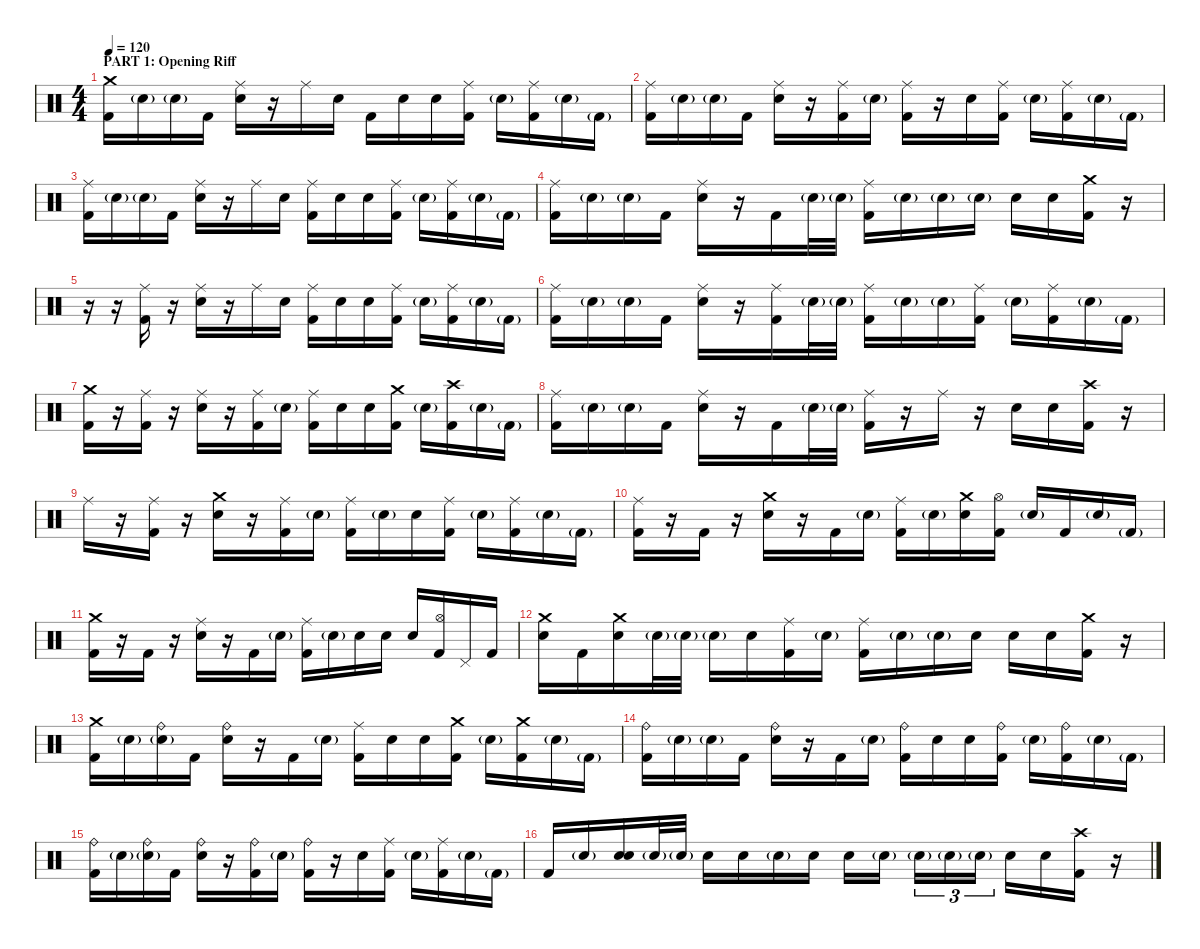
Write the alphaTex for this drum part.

\defaultSystemsLayout 4
\hideDynamics
\bracketExtendMode nobrackets
\singleTrackTrackNamePolicy hidden
\multiTrackTrackNamePolicy hidden
\firstSystemTrackNameMode fullname
\firstSystemTrackNameOrientation horizontal
\otherSystemsTrackNameOrientation horizontal
\track ("Martin Axenrot - Drums" "drm.") {instrument percussion}
\staff {score}
\articulation defaults
\ts (4 4)
\beaming (8 2 2 2 2)
\section ("" "PART 1: Opening Riff")
\tempo 120
\clef neutral
\ks c
("Crash medium (hit)" "Kick (hit) 2").16{dy f beam Down} "Snare (hit) 2"{g}.16{dy mf beam Down} "Snare (hit) 2"{g}.16{beam Down} "Kick (hit) 2".16{dy f beam Down} ("Ride (middle)" "Snare (hit) 2").16{beam Down} r.16{beam Down} "Ride (middle)".16{beam Down} "Snare (hit) 2".16{beam Down} "Kick (hit) 2".16{beam Down} "Snare (hit) 2".16{dy mp beam Down} "Snare (hit) 2".16{dy f beam Down} ("Ride (middle)" "Kick (hit) 2").16{beam Down} "Snare (hit) 2"{g}.16{dy mf beam Down} ("Ride (middle)" "Kick (hit) 2").16{dy f beam Down} "Snare (hit) 2"{g}.16{dy mf beam Down} "Kick (hit) 2"{g}.16{beam Down} |
("Ride (middle)" "Kick (hit) 2").16{dy f beam Down} "Snare (hit) 2"{g}.16{dy mf beam Down} "Snare (hit) 2"{g}.16{beam Down} "Kick (hit) 2".16{dy f beam Down} ("Ride (middle)" "Snare (hit) 2").16{beam Down} r.16{beam Down} ("Ride (middle)" "Kick (hit) 2").16{beam Down} "Snare (hit) 2"{g}.16{dy mf beam Down} ("Ride (middle)" "Kick (hit) 2").16{dy f beam Down} r.16{beam Down} "Snare (hit) 2".16{beam Down} ("Ride (middle)" "Kick (hit) 2").16{beam Down} "Snare (hit) 2"{g}.16{dy mf beam Down} ("Ride (middle)" "Kick (hit) 2").16{dy f beam Down} "Snare (hit) 2"{g}.16{dy mf beam Down} "Kick (hit) 2"{g}.16{beam Down} |
("Ride (middle)" "Kick (hit) 2").16{dy f beam Down} "Snare (hit) 2"{g}.16{dy mf beam Down} "Snare (hit) 2"{g}.16{beam Down} "Kick (hit) 2".16{dy f beam Down} ("Ride (middle)" "Snare (hit) 2").16{beam Down} r.16{beam Down} "Ride (middle)".16{beam Down} "Snare (hit) 2".16{beam Down} ("Ride (middle)" "Kick (hit) 2").16{beam Down} "Snare (hit) 2".16{dy mp beam Down} "Snare (hit) 2".16{dy f beam Down} ("Ride (middle)" "Kick (hit) 2").16{beam Down} "Snare (hit) 2"{g}.16{dy mf beam Down} ("Ride (middle)" "Kick (hit) 2").16{dy f beam Down} "Snare (hit) 2"{g}.16{dy mf beam Down} "Kick (hit) 2"{g}.16{beam Down} |
("Ride (middle)" "Kick (hit) 2").16{dy f beam Down} "Snare (hit) 2"{g}.16{dy mf beam Down} "Snare (hit) 2"{g}.16{beam Down} "Kick (hit) 2".16{dy f beam Down} ("Ride (middle)" "Snare (hit) 2").16{beam Down} r.16{beam Down} "Kick (hit) 2".16{beam Down} "Snare (hit) 2"{g}.32{dy mf beam Down} "Snare (hit) 2"{g}.32{beam Down} ("Ride (middle)" "Kick (hit) 2").16{dy f beam Down} "Snare (hit) 2"{g}.16{dy mf beam Down} "Snare (hit) 2"{g}.16{beam Down} "Snare (hit) 2"{g}.16{beam Down} "Snare (hit) 2".16{dy f beam Down} "Snare (hit) 2".16{beam Down} ("Crash medium (hit)" "Kick (hit) 2").16{beam Down} r.16{beam Down} |
r.16{beam Down} r.16{beam Down} ("Ride (middle)" "Kick (hit) 2").16{beam Down} r.16{beam Down} ("Ride (middle)" "Snare (hit) 2").16{beam Down} r.16{beam Down} "Ride (middle)".16{beam Down} "Snare (hit) 2".16{beam Down} ("Ride (middle)" "Kick (hit) 2").16{beam Down} "Snare (hit) 2".16{dy mp beam Down} "Snare (hit) 2".16{dy f beam Down} ("Ride (middle)" "Kick (hit) 2").16{beam Down} "Snare (hit) 2"{g}.16{dy mf beam Down} ("Ride (middle)" "Kick (hit) 2").16{dy f beam Down} "Snare (hit) 2"{g}.16{dy mf beam Down} "Kick (hit) 2"{g}.16{beam Down} |
("Ride (middle)" "Kick (hit) 2").16{dy f beam Down} "Snare (hit) 2"{g}.16{dy mf beam Down} "Snare (hit) 2"{g}.16{beam Down} "Kick (hit) 2".16{dy f beam Down} ("Ride (middle)" "Snare (hit) 2").16{beam Down} r.16{beam Down} ("Ride (middle)" "Kick (hit) 2").16{beam Down} "Snare (hit) 2"{g}.32{dy mf beam Down} "Snare (hit) 2"{g}.32{beam Down} ("Ride (middle)" "Kick (hit) 2").16{dy f beam Down} "Snare (hit) 2"{g}.16{dy mf beam Down} "Snare (hit) 2"{g}.16{beam Down} ("Ride (middle)" "Kick (hit) 2").16{dy f beam Down} "Snare (hit) 2"{g}.16{dy mf beam Down} ("Ride (middle)" "Kick (hit) 2").16{dy f beam Down} "Snare (hit) 2"{g}.16{dy mf beam Down} "Kick (hit) 2"{g}.16{beam Down} |
("Crash medium (hit)" "Kick (hit) 2").16{dy f beam Down} r.16{beam Down} ("Ride (middle)" "Kick (hit) 2").16{beam Down} r.16{beam Down} ("Ride (middle)" "Snare (hit) 2").16{beam Down} r.16{beam Down} ("Ride (middle)" "Kick (hit) 2").16{beam Down} "Snare (hit) 2"{g}.16{dy mf beam Down} ("Ride (middle)" "Kick (hit) 2").16{dy f beam Down} "Snare (hit) 2".16{dy mp beam Down} "Snare (hit) 2".16{dy f beam Down} ("Crash medium (hit)" "Kick (hit) 2").16{beam Down} "Snare (hit) 2"{g}.16{dy mf beam Down} ("Crash high (hit)" "Kick (hit) 2").16{dy f beam Down} "Snare (hit) 2"{g}.16{dy mf beam Down} "Kick (hit) 2"{g}.16{beam Down} |
("Ride (middle)" "Kick (hit) 2").16{dy f beam Down} "Snare (hit) 2"{g}.16{dy mf beam Down} "Snare (hit) 2"{g}.16{beam Down} "Kick (hit) 2".16{dy f beam Down} ("Ride (middle)" "Snare (hit) 2").16{beam Down} r.16{beam Down} "Kick (hit) 2".16{beam Down} "Snare (hit) 2"{g}.32{dy mf beam Down} "Snare (hit) 2"{g}.32{beam Down} ("Ride (middle)" "Kick (hit) 2").16{dy f beam Down} r.16{beam Down} "Ride (middle)".16{beam Down} r.16{beam Down} "Snare (hit) 2".16{beam Down} "Snare (hit) 2".16{beam Down} ("Crash high (hit)" "Kick (hit) 2").16{beam Down} r.16{beam Down} |
"Ride (middle)".16{beam Down} r.16{beam Down} ("Ride (middle)" "Kick (hit) 2").16{beam Down} r.16{beam Down} ("Crash medium (hit)" "Snare (hit) 2").16{beam Down} r.16{beam Down} ("Ride (middle)" "Kick (hit) 2").16{beam Down} "Snare (hit) 2"{g}.16{dy mf beam Down} ("Ride (middle)" "Kick (hit) 2").16{dy f beam Down} "Snare (hit) 2"{g}.16{dy mf beam Down} "Snare (hit) 2".16{dy f beam Down} ("Ride (middle)" "Kick (hit) 2").16{beam Down} "Snare (hit) 2"{g}.16{dy mf beam Down} ("Ride (middle)" "Kick (hit) 2").16{dy f beam Down} "Snare (hit) 2"{g}.16{dy mf beam Down} "Kick (hit) 2"{g}.16{beam Down} |
("Ride (middle)" "Kick (hit) 2").16{dy f beam Down} r.16{beam Down} "Kick (hit) 2".16{beam Down} r.16{beam Down} ("Crash medium (hit)" "Snare (hit) 2").16{beam Down} r.16{beam Down} "Kick (hit) 2".16{beam Down} "Snare (hit) 2"{g}.16{dy mf beam Down} ("Ride (middle)" "Kick (hit) 2").16{dy f beam Down} "Snare (hit) 2"{g}.16{dy mf beam Down} ("Crash medium (hit)" "Snare (hit) 2").16{dy f beam Down} ("Hi-Hat (open)" "Kick (hit) 2").16{beam Down} "Snare (hit) 2"{g}.16{dy mf beam Up} "Kick (hit) 2".16{dy f beam Up} "Snare (hit) 2"{g}.16{dy mf beam Up} "Kick (hit) 2"{g}.16{beam Up} |
("Crash medium (hit)" "Kick (hit) 2").16{dy f beam Down} r.16{beam Down} "Kick (hit) 2".16{beam Down} r.16{beam Down} ("Ride (middle)" "Snare (hit) 2").16{beam Down} r.16{beam Down} "Kick (hit) 2".16{beam Down} "Snare (hit) 2"{g}.16{dy mf beam Down} ("Ride (middle)" "Kick (hit) 2").16{dy f beam Down} "Snare (hit) 2"{g}.16{dy mf beam Down} "Snare (hit) 2".16{dy f beam Down} "Snare (hit) 2".16{beam Down} "Snare (hit) 2".16{beam Up} ("Hi-Hat (open)" "Kick (hit) 2").16{beam Up} "Pedal Hi-Hat (hit)".16{beam Up} "Kick (hit) 2".16{beam Up} |
("Crash medium (hit)" "Snare (hit) 2").16{beam Down} "Kick (hit) 2".16{beam Down} ("Crash medium (hit)" "Snare (hit) 2").16{beam Down} "Snare (hit) 2"{g}.32{dy mf beam Down} "Snare (hit) 2"{g}.32{beam Down} "Snare (hit) 2"{g}.16{beam Down} "Snare (hit) 2".16{dy f beam Down} ("Ride (middle)" "Kick (hit) 2").16{beam Down} "Snare (hit) 2"{g}.16{dy mf beam Down} ("Ride (middle)" "Kick (hit) 2").16{dy f beam Down} "Snare (hit) 2"{g}.16{dy mf beam Down} "Snare (hit) 2"{g}.16{beam Down} "Snare (hit) 2".16{dy f beam Down} "Snare (hit) 2".16{beam Down} "Snare (hit) 2".16{beam Down} ("Crash medium (hit)" "Kick (hit) 2").16{beam Down} r.16{beam Down} |
("Crash medium (hit)" "Kick (hit) 2").16{beam Down} "Snare (hit) 2"{g}.16{dy mf beam Down} ("Ride (bell)" "Snare (hit) 2"{g}).16{dy f beam Down} "Kick (hit) 2".16{beam Down} ("Ride (bell)" "Snare (hit) 2").16{beam Down} r.16{beam Down} "Kick (hit) 2".16{beam Down} "Snare (hit) 2"{g}.16{dy mf beam Down} ("Ride (middle)" "Kick (hit) 2").16{dy f beam Down} "Snare (hit) 2".16{dy mp beam Down} "Snare (hit) 2".16{dy f beam Down} ("Crash medium (hit)" "Kick (hit) 2").16{beam Down} "Snare (hit) 2"{g}.16{dy mf beam Down} ("Crash medium (hit)" "Kick (hit) 2").16{dy f beam Down} "Snare (hit) 2"{g}.16{dy mf beam Down} "Kick (hit) 2"{g}.16{beam Down} |
("Ride (bell)" "Kick (hit) 2").16{dy f beam Down} "Snare (hit) 2"{g}.16{dy mf beam Down} "Snare (hit) 2"{g}.16{beam Down} "Kick (hit) 2".16{dy f beam Down} ("Ride (bell)" "Snare (hit) 2").16{beam Down} r.16{beam Down} "Kick (hit) 2".16{beam Down} "Snare (hit) 2"{g}.16{dy mf beam Down} ("Ride (bell)" "Kick (hit) 2").16{dy f beam Down} "Snare (hit) 2".16{dy mp beam Down} "Snare (hit) 2".16{dy f beam Down} ("Ride (bell)" "Kick (hit) 2").16{beam Down} "Snare (hit) 2"{g}.16{dy mf beam Down} ("Ride (bell)" "Kick (hit) 2").16{dy f beam Down} "Snare (hit) 2"{g}.16{dy mf beam Down} "Kick (hit) 2"{g}.16{beam Down} |
("Ride (bell)" "Kick (hit) 2").16{dy f beam Down} "Snare (hit) 2"{g}.16{dy mf beam Down} ("Ride (bell)" "Snare (hit) 2"{g}).16{dy f beam Down} "Kick (hit) 2".16{beam Down} ("Ride (bell)" "Snare (hit) 2").16{beam Down} r.16{beam Down} ("Ride (bell)" "Kick (hit) 2").16{beam Down} "Snare (hit) 2"{g}.16{dy mf beam Down} ("Ride (bell)" "Kick (hit) 2").16{dy f beam Down} r.16{beam Down} "Snare (hit) 2".16{beam Down} ("Ride (middle)" "Kick (hit) 2").16{beam Down} "Snare (hit) 2"{g}.16{dy mf beam Down} ("Ride (middle)" "Kick (hit) 2").16{dy f beam Down} "Snare (hit) 2"{g}.16{dy mf beam Down} "Kick (hit) 2"{g}.16{beam Down} |
"Kick (hit) 2".16{dy f beam Up} "Snare (hit) 2"{g}.16{dy mf beam Up} ("Snare (hit) 2" "Snare (hit) 2").16{dy f beam Up} "Snare (hit) 2"{g}.32{dy mf beam Up} "Snare (hit) 2"{g}.32{beam Up} "Snare (hit) 2".16{dy f beam Down} "Snare (hit) 2".16{beam Down} "Snare (hit) 2"{g}.16{dy mf beam Down} "Snare (hit) 2".16{dy f beam Down} "Snare (hit) 2".16{beam Down} "Snare (hit) 2"{g}.16{dy mf beam Down} "Snare (hit) 2"{g}.16{tu (3 2) beam Down} "Snare (hit) 2"{g}.16{tu (3 2) beam Down} "Snare (hit) 2"{g}.16{tu (3 2) beam Down} "Snare (hit) 2".16{dy f beam Down} "Snare (hit) 2".16{beam Down} ("Crash high (hit)" "Kick (hit) 2").16{beam Down} r.16{beam Down}
